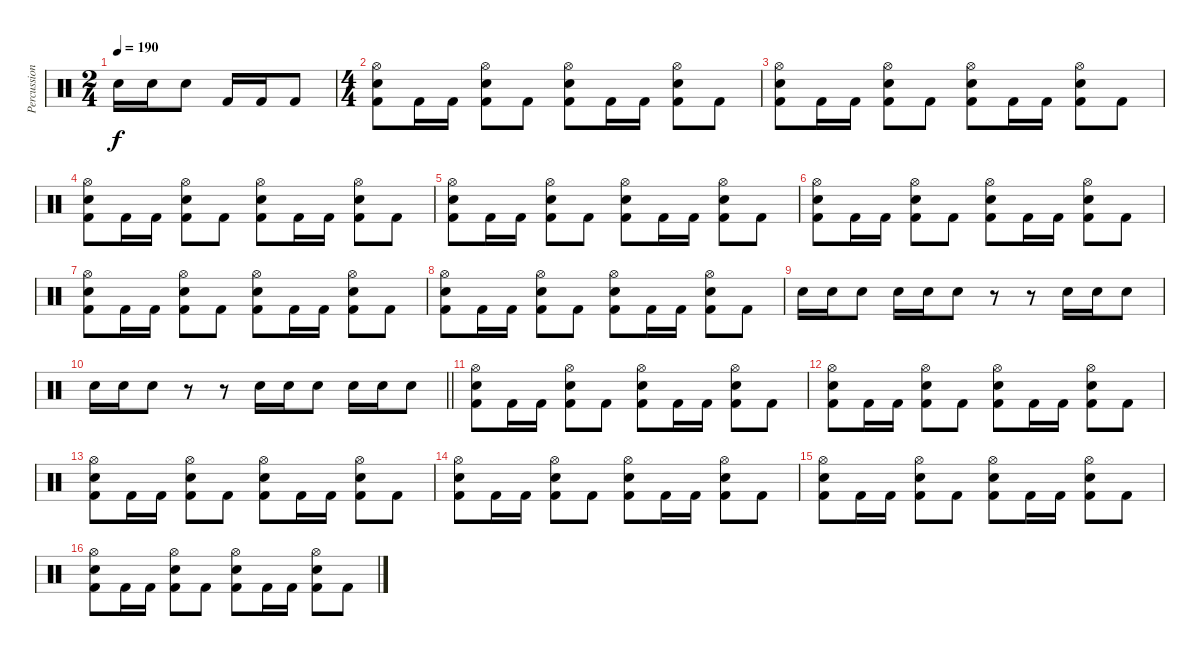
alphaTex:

\track ("Percussion" "Percussion") {instrument percussion}
\staff {score}
\articulation defaults
\ts (2 4)
\tempo 190
\clef neutral
\ks c "Electric Snare (hit)".16{dy f} "Electric Snare (hit)".16 "Electric Snare (hit)".8 "Kick (hit) 2".16 "Kick (hit) 2".16 "Kick (hit) 2".8
|
\ts (4 4)
("Hi-Hat (open)" "Electric Snare (hit)" "Kick (hit) 2").8 "Kick (hit) 2".16 "Kick (hit) 2".16 ("Hi-Hat (open)" "Electric Snare (hit)" "Kick (hit) 2").8 "Kick (hit) 2".8 ("Hi-Hat (open)" "Electric Snare (hit)" "Kick (hit) 2").8 "Kick (hit) 2".16 "Kick (hit) 2".16 ("Hi-Hat (open)" "Electric Snare (hit)" "Kick (hit) 2").8 "Kick (hit) 2".8 |
("Hi-Hat (open)" "Electric Snare (hit)" "Kick (hit) 2").8 "Kick (hit) 2".16 "Kick (hit) 2".16 ("Hi-Hat (open)" "Electric Snare (hit)" "Kick (hit) 2").8 "Kick (hit) 2".8 ("Hi-Hat (open)" "Electric Snare (hit)" "Kick (hit) 2").8 "Kick (hit) 2".16 "Kick (hit) 2".16 ("Hi-Hat (open)" "Electric Snare (hit)" "Kick (hit) 2").8 "Kick (hit) 2".8 |
("Hi-Hat (open)" "Electric Snare (hit)" "Kick (hit) 2").8 "Kick (hit) 2".16 "Kick (hit) 2".16 ("Hi-Hat (open)" "Electric Snare (hit)" "Kick (hit) 2").8 "Kick (hit) 2".8 ("Hi-Hat (open)" "Electric Snare (hit)" "Kick (hit) 2").8 "Kick (hit) 2".16 "Kick (hit) 2".16 ("Hi-Hat (open)" "Electric Snare (hit)" "Kick (hit) 2").8 "Kick (hit) 2".8 |
("Hi-Hat (open)" "Electric Snare (hit)" "Kick (hit) 2").8 "Kick (hit) 2".16 "Kick (hit) 2".16 ("Hi-Hat (open)" "Electric Snare (hit)" "Kick (hit) 2").8 "Kick (hit) 2".8 ("Hi-Hat (open)" "Electric Snare (hit)" "Kick (hit) 2").8 "Kick (hit) 2".16 "Kick (hit) 2".16 ("Hi-Hat (open)" "Electric Snare (hit)" "Kick (hit) 2").8 "Kick (hit) 2".8 |
("Hi-Hat (open)" "Electric Snare (hit)" "Kick (hit) 2").8 "Kick (hit) 2".16 "Kick (hit) 2".16 ("Hi-Hat (open)" "Electric Snare (hit)" "Kick (hit) 2").8 "Kick (hit) 2".8 ("Hi-Hat (open)" "Electric Snare (hit)" "Kick (hit) 2").8 "Kick (hit) 2".16 "Kick (hit) 2".16 ("Hi-Hat (open)" "Electric Snare (hit)" "Kick (hit) 2").8 "Kick (hit) 2".8 |
("Hi-Hat (open)" "Electric Snare (hit)" "Kick (hit) 2").8 "Kick (hit) 2".16 "Kick (hit) 2".16 ("Hi-Hat (open)" "Electric Snare (hit)" "Kick (hit) 2").8 "Kick (hit) 2".8 ("Hi-Hat (open)" "Electric Snare (hit)" "Kick (hit) 2").8 "Kick (hit) 2".16 "Kick (hit) 2".16 ("Hi-Hat (open)" "Electric Snare (hit)" "Kick (hit) 2").8 "Kick (hit) 2".8 |
("Hi-Hat (open)" "Electric Snare (hit)" "Kick (hit) 2").8 "Kick (hit) 2".16 "Kick (hit) 2".16 ("Hi-Hat (open)" "Electric Snare (hit)" "Kick (hit) 2").8 "Kick (hit) 2".8 ("Hi-Hat (open)" "Electric Snare (hit)" "Kick (hit) 2").8 "Kick (hit) 2".16 "Kick (hit) 2".16 ("Hi-Hat (open)" "Electric Snare (hit)" "Kick (hit) 2").8 "Kick (hit) 2".8 |
"Electric Snare (hit)".16 "Electric Snare (hit)".16 "Electric Snare (hit)".8 "Electric Snare (hit)".16 "Electric Snare (hit)".16 "Electric Snare (hit)".8 r.8 r.8 "Electric Snare (hit)".16 "Electric Snare (hit)".16 "Electric Snare (hit)".8 |
\barLineRight lightlight "Electric Snare (hit)".16 "Electric Snare (hit)".16 "Electric Snare (hit)".8
r.8 r.8 "Electric Snare (hit)".16 "Electric Snare (hit)".16 "Electric Snare (hit)".8 "Electric Snare (hit)".16 "Electric Snare (hit)".16 "Electric Snare (hit)".8 |
\section ("" "")
("Hi-Hat (open)" "Electric Snare (hit)" "Kick (hit) 2").8 "Kick (hit) 2".16 "Kick (hit) 2".16 ("Hi-Hat (open)" "Electric Snare (hit)" "Kick (hit) 2").8 "Kick (hit) 2".8 ("Hi-Hat (open)" "Electric Snare (hit)" "Kick (hit) 2").8 "Kick (hit) 2".16 "Kick (hit) 2".16 ("Hi-Hat (open)" "Electric Snare (hit)" "Kick (hit) 2").8 "Kick (hit) 2".8 |
("Hi-Hat (open)" "Electric Snare (hit)" "Kick (hit) 2").8 "Kick (hit) 2".16 "Kick (hit) 2".16 ("Hi-Hat (open)" "Electric Snare (hit)" "Kick (hit) 2").8 "Kick (hit) 2".8 ("Hi-Hat (open)" "Electric Snare (hit)" "Kick (hit) 2").8 "Kick (hit) 2".16 "Kick (hit) 2".16 ("Hi-Hat (open)" "Electric Snare (hit)" "Kick (hit) 2").8 "Kick (hit) 2".8 |
("Hi-Hat (open)" "Electric Snare (hit)" "Kick (hit) 2").8 "Kick (hit) 2".16 "Kick (hit) 2".16 ("Hi-Hat (open)" "Electric Snare (hit)" "Kick (hit) 2").8 "Kick (hit) 2".8 ("Hi-Hat (open)" "Electric Snare (hit)" "Kick (hit) 2").8 "Kick (hit) 2".16 "Kick (hit) 2".16 ("Hi-Hat (open)" "Electric Snare (hit)" "Kick (hit) 2").8 "Kick (hit) 2".8 |
("Hi-Hat (open)" "Electric Snare (hit)" "Kick (hit) 2").8 "Kick (hit) 2".16 "Kick (hit) 2".16 ("Hi-Hat (open)" "Electric Snare (hit)" "Kick (hit) 2").8 "Kick (hit) 2".8 ("Hi-Hat (open)" "Electric Snare (hit)" "Kick (hit) 2").8 "Kick (hit) 2".16 "Kick (hit) 2".16 ("Hi-Hat (open)" "Electric Snare (hit)" "Kick (hit) 2").8 "Kick (hit) 2".8 |
("Hi-Hat (open)" "Electric Snare (hit)" "Kick (hit) 2").8 "Kick (hit) 2".16 "Kick (hit) 2".16 ("Hi-Hat (open)" "Electric Snare (hit)" "Kick (hit) 2").8 "Kick (hit) 2".8 ("Hi-Hat (open)" "Electric Snare (hit)" "Kick (hit) 2").8 "Kick (hit) 2".16 "Kick (hit) 2".16 ("Hi-Hat (open)" "Electric Snare (hit)" "Kick (hit) 2").8 "Kick (hit) 2".8 |
("Hi-Hat (open)" "Electric Snare (hit)" "Kick (hit) 2").8 "Kick (hit) 2".16 "Kick (hit) 2".16 ("Hi-Hat (open)" "Electric Snare (hit)" "Kick (hit) 2").8 "Kick (hit) 2".8 ("Hi-Hat (open)" "Electric Snare (hit)" "Kick (hit) 2").8 "Kick (hit) 2".16 "Kick (hit) 2".16 ("Hi-Hat (open)" "Electric Snare (hit)" "Kick (hit) 2").8 "Kick (hit) 2".8
